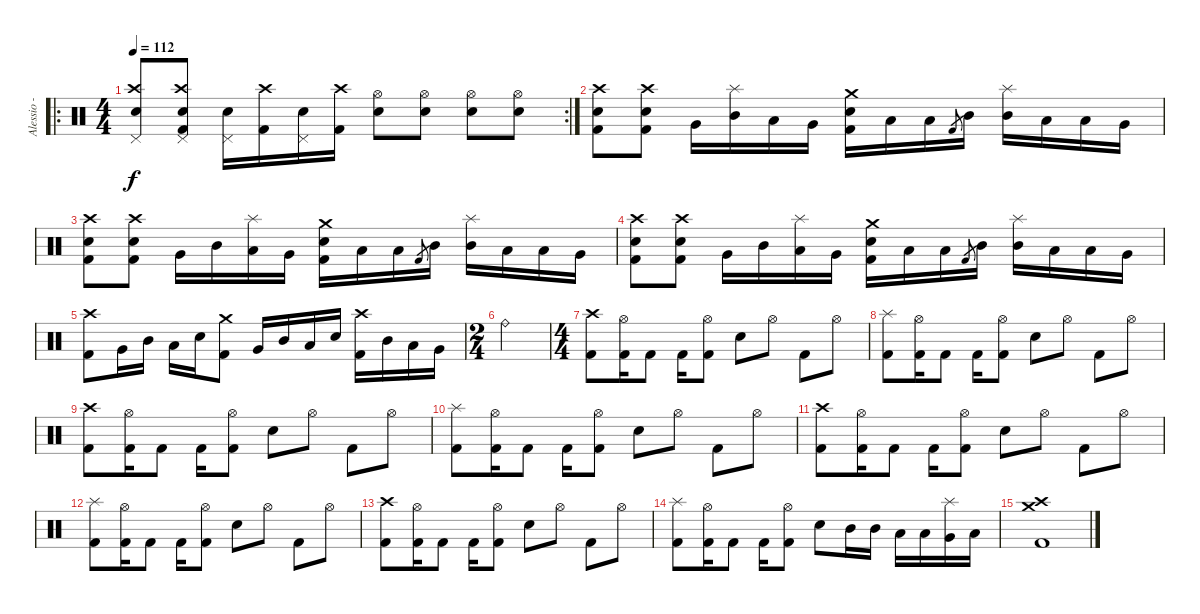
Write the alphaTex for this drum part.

\track ("Alessio - Drums" "Alessio - ") {instrument percussion}
\staff {score}
\articulation defaults
\ro
\rc 2
\ts (4 4)
\tempo 112
\clef neutral
\ks c
("Pedal Hi-Hat (hit)" "Crash high (hit)" "Electric Snare (hit)").8{dy f} ("Pedal Hi-Hat (hit)" "Crash high (hit)" "Electric Snare (hit)" "Kick (hit) 2").8 ("Pedal Hi-Hat (hit)" "Electric Snare (hit)").16 ("Crash high (hit)" "Kick (hit) 2").16 ("Pedal Hi-Hat (hit)" "Electric Snare (hit)").16 ("Crash high (hit)" "Kick (hit) 2").16 ("Hi-Hat (open)" "Electric Snare (hit)").8 ("Hi-Hat (open)" "Electric Snare (hit)").8 ("Hi-Hat (open)" "Electric Snare (hit)").8 ("Hi-Hat (open)" "Electric Snare (hit)").8 |
("Crash high (hit)" "Electric Snare (hit)" "Kick (hit) 2").8 ("Crash high (hit)" "Electric Snare (hit)" "Kick (hit) 2").8 "Very Low Tom (hit)".16 ("Splash (hit)" "Mid Tom (hit)").16 "Low Tom (hit)".16 "Very Low Tom (hit)".16 ("Crash medium (hit)" "Electric Snare (hit)" "Kick (hit) 2").16 "Low Floor Tom (hit)".16 "Low Floor Tom (hit)".16 "Kick (hit) 2".8{gr} "Mid Tom (hit)".16 ("Splash (hit)" "Mid Tom (hit)").16 "Low Tom (hit)".16 "Low Tom (hit)".16 "Very Low Tom (hit)".16 |
("Crash high (hit)" "Electric Snare (hit)" "Kick (hit) 2").8 ("Crash high (hit)" "Electric Snare (hit)" "Kick (hit) 2").8 "Very Low Tom (hit)".16 "Mid Tom (hit)".16 ("Splash (hit)" "Low Tom (hit)").16 "Very Low Tom (hit)".16 ("Crash medium (hit)" "Electric Snare (hit)" "Kick (hit) 2").16 "Low Floor Tom (hit)".16 "Low Floor Tom (hit)".16 "Kick (hit) 2".8{gr} "Mid Tom (hit)".16 ("Splash (hit)" "Mid Tom (hit)").16 "Low Tom (hit)".16 "Low Tom (hit)".16 "Very Low Tom (hit)".16 |
("Crash high (hit)" "Electric Snare (hit)" "Kick (hit) 2").8 ("Crash high (hit)" "Electric Snare (hit)" "Kick (hit) 2").8 "Very Low Tom (hit)".16 "Mid Tom (hit)".16 ("Splash (hit)" "Low Tom (hit)").16 "Very Low Tom (hit)".16 ("Crash medium (hit)" "Electric Snare (hit)" "Kick (hit) 2").16 "Low Floor Tom (hit)".16 "Low Floor Tom (hit)".16 "Kick (hit) 2".8{gr} "Mid Tom (hit)".16 ("Splash (hit)" "Mid Tom (hit)").16 "Low Tom (hit)".16 "Low Tom (hit)".16 "Very Low Tom (hit)".16 |
("Crash high (hit)" "Kick (hit) 2").8 "Very Low Tom (hit)".16 "Mid Tom (hit)".16 "Low Tom (hit)".16 "Electric Snare (hit)".16 ("Crash medium (hit)" "Kick (hit) 2").8 "Very Low Tom (hit)".16 "Mid Tom (hit)".16 "Low Tom (hit)".16 "Electric Snare (hit)".16 ("Crash high (hit)" "Kick (hit) 2").16 "Mid Tom (hit)".16 "Low Tom (hit)".16 "Very Low Tom (hit)".16 |
\ts (2 4)
"Ride (bell)".2 |
\ts (4 4)
("Crash high (hit)" "Kick (hit) 2").8 ("Hi-Hat (open)" "Kick (hit) 2").16 "Kick (hit) 2".8 "Kick (hit) 2".16 ("Hi-Hat (open)" "Kick (hit) 2").8 "Electric Snare (hit)".8 "Hi-Hat (open)".8 "Kick (hit) 2".8 "Hi-Hat (open)".8 |
("Splash (hit)" "Kick (hit) 2").8 ("Hi-Hat (open)" "Kick (hit) 2").16 "Kick (hit) 2".8 "Kick (hit) 2".16 ("Hi-Hat (open)" "Kick (hit) 2").8 "Electric Snare (hit)".8 "Hi-Hat (open)".8 "Kick (hit) 2".8 "Hi-Hat (open)".8 |
("Crash high (hit)" "Kick (hit) 2").8 ("Hi-Hat (open)" "Kick (hit) 2").16 "Kick (hit) 2".8 "Kick (hit) 2".16 ("Hi-Hat (open)" "Kick (hit) 2").8 "Electric Snare (hit)".8 "Hi-Hat (open)".8 "Kick (hit) 2".8 "Hi-Hat (open)".8 |
("Splash (hit)" "Kick (hit) 2").8 ("Hi-Hat (open)" "Kick (hit) 2").16 "Kick (hit) 2".8 "Kick (hit) 2".16 ("Hi-Hat (open)" "Kick (hit) 2").8 "Electric Snare (hit)".8 "Hi-Hat (open)".8 "Kick (hit) 2".8 "Hi-Hat (open)".8 |
("Crash high (hit)" "Kick (hit) 2").8 ("Hi-Hat (open)" "Kick (hit) 2").16 "Kick (hit) 2".8 "Kick (hit) 2".16 ("Hi-Hat (open)" "Kick (hit) 2").8 "Electric Snare (hit)".8 "Hi-Hat (open)".8 "Kick (hit) 2".8 "Hi-Hat (open)".8 |
("Splash (hit)" "Kick (hit) 2").8 ("Hi-Hat (open)" "Kick (hit) 2").16 "Kick (hit) 2".8 "Kick (hit) 2".16 ("Hi-Hat (open)" "Kick (hit) 2").8 "Electric Snare (hit)".8 "Hi-Hat (open)".8 "Kick (hit) 2".8 "Hi-Hat (open)".8 |
("Crash high (hit)" "Kick (hit) 2").8 ("Hi-Hat (open)" "Kick (hit) 2").16 "Kick (hit) 2".8 "Kick (hit) 2".16 ("Hi-Hat (open)" "Kick (hit) 2").8 "Electric Snare (hit)".8 "Hi-Hat (open)".8 "Kick (hit) 2".8 "Hi-Hat (open)".8 |
("Splash (hit)" "Kick (hit) 2").8 ("Hi-Hat (open)" "Kick (hit) 2").16 "Kick (hit) 2".8 "Kick (hit) 2".16 ("Hi-Hat (open)" "Kick (hit) 2").8 "Electric Snare (hit)".8 "Mid Tom (hit)".16 "Mid Tom (hit)".16 "Low Tom (hit)".16 "Low Tom (hit)".16 ("Splash (hit)" "Very Low Tom (hit)").16 "Low Tom (hit)".16 |
("Crash medium (hit)" "Crash high (hit)" "Kick (hit) 2").1
